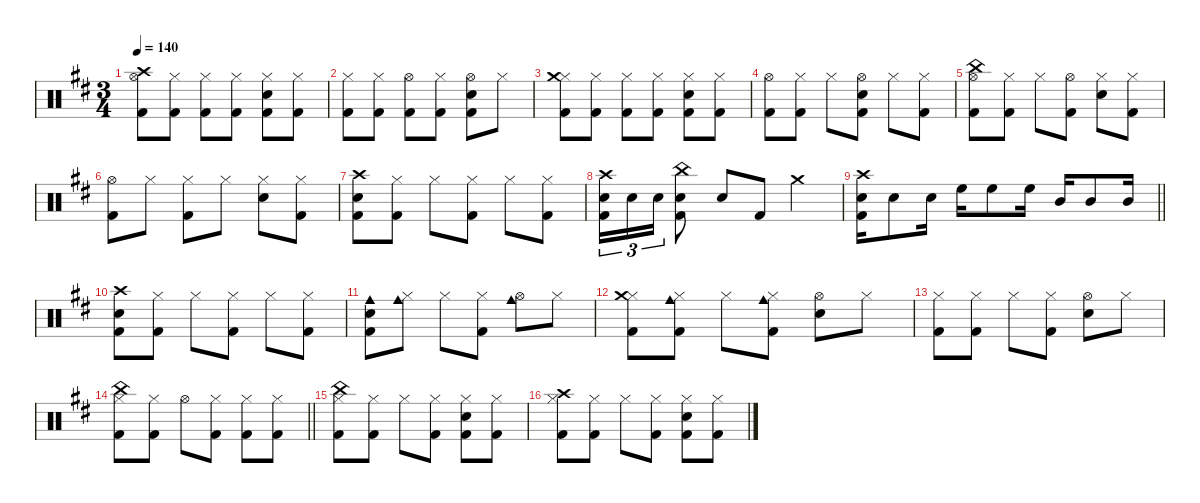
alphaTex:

\defaultSystemsLayout 4
\hideDynamics
\bracketExtendMode nobrackets
\singleTrackTrackNamePolicy hidden
\multiTrackTrackNamePolicy hidden
\otherSystemsTrackNameOrientation horizontal
\track ("Percussions" "drm.") {instrument percussion}
\staff {score}
\articulation defaults
\ts (3 4)
\tempo 140
\clef neutral
\ks d
("Hi-Hat (open)"{acc forcenatural} "Crash high (hit)"{acc forcenatural} "Kick (hit) 2"{acc forcenatural}).8{dy f beam Down} ("Hi-Hat (closed)"{acc forcenatural} "Kick (hit) 2"{acc forcenatural}).8{beam Down} ("Hi-Hat (closed)"{acc forcenatural} "Kick (hit) 2"{acc forcenatural}).8{beam Down} ("Hi-Hat (closed)"{acc forcenatural} "Kick (hit) 2"{acc forcenatural}).8{beam Down} ("Hi-Hat (closed)"{acc forcenatural} "Snare (hit) 2"{acc forcenatural} "Kick (hit) 2"{acc forcenatural}).8{beam Down} ("Hi-Hat (closed)"{acc forcenatural} "Kick (hit) 2"{acc forcenatural}).8{beam Down} |
("Hi-Hat (closed)"{acc forcenatural} "Kick (hit) 2"{acc forcenatural}).8{beam Down} ("Hi-Hat (closed)"{acc forcenatural} "Kick (hit) 2"{acc forcenatural}).8{beam Down} ("Hi-Hat (open)"{acc forcenatural} "Kick (hit) 2"{acc forcenatural}).8{beam Down} ("Hi-Hat (closed)"{acc forcenatural} "Kick (hit) 2"{acc forcenatural}).8{beam Down} ("Hi-Hat (open)"{acc forcenatural} "Snare (hit) 2"{acc forcenatural} "Kick (hit) 2"{acc forcenatural}).8{beam Down} "Hi-Hat (closed)"{acc forcenatural}.8{beam Down} |
("Hi-Hat (closed)"{acc forcenatural} "Crash medium (hit)"{acc forcenatural} "Kick (hit) 2"{acc forcenatural}).8{beam Down} ("Hi-Hat (closed)"{acc forcenatural} "Kick (hit) 2"{acc forcenatural}).8{beam Down} ("Hi-Hat (closed)"{acc forcenatural} "Kick (hit) 2"{acc forcenatural}).8{beam Down} ("Hi-Hat (closed)"{acc forcenatural} "Kick (hit) 2"{acc forcenatural}).8{beam Down} ("Hi-Hat (closed)"{acc forcenatural} "Snare (hit) 2"{acc forcenatural} "Kick (hit) 2"{acc forcenatural}).8{beam Down} ("Hi-Hat (closed)"{acc forcenatural} "Kick (hit) 2"{acc forcenatural}).8{beam Down} |
("Hi-Hat (open)"{acc forcenatural} "Kick (hit) 2"{acc forcenatural}).8{beam Down} ("Hi-Hat (closed)"{acc forcenatural} "Kick (hit) 2"{acc forcenatural}).8{beam Down} "Hi-Hat (closed)"{acc forcenatural}.8{beam Down} ("Hi-Hat (open)"{acc forcenatural} "Snare (hit) 2"{acc forcenatural} "Kick (hit) 2"{acc forcenatural}).8{beam Down} "Hi-Hat (closed)"{acc forcenatural}.8{beam Down} ("Hi-Hat (closed)"{acc forcenatural} "Kick (hit) 2"{acc forcenatural}).8{beam Down} |
("Hi-Hat (open)"{acc forcenatural} "China (hit)"{acc forcenatural} "Kick (hit) 2"{acc forcenatural}).8{beam Down} ("Hi-Hat (closed)"{acc forcenatural} "Kick (hit) 2"{acc forcenatural}).8{beam Down} "Hi-Hat (closed)"{acc forcenatural}.8{beam Down} ("Hi-Hat (open)"{acc forcenatural} "Kick (hit) 2"{acc forcenatural}).8{beam Down} ("Hi-Hat (closed)"{acc forcenatural} "Snare (hit) 2"{acc forcenatural}).8{beam Down} ("Hi-Hat (closed)"{acc forcenatural} "Kick (hit) 2"{acc forcenatural}).8{beam Down} |
("Hi-Hat (open)"{acc forcenatural} "Kick (hit) 2"{acc forcenatural}).8{beam Down} "Hi-Hat (closed)"{acc forcenatural}.8{beam Down} ("Hi-Hat (closed)"{acc forcenatural} "Kick (hit) 2"{acc forcenatural}).8{beam Down} "Hi-Hat (closed)"{acc forcenatural}.8{beam Down} ("Hi-Hat (closed)"{acc forcenatural} "Snare (hit) 2"{acc forcenatural}).8{beam Down} ("Hi-Hat (closed)"{acc forcenatural} "Kick (hit) 2"{acc forcenatural}).8{beam Down} |
("Crash high (hit)"{acc forcenatural} "Snare (hit) 2"{acc forcenatural} "Kick (hit) 2"{acc forcenatural}).8{beam Down} ("Hi-Hat (closed)"{acc forcenatural} "Kick (hit) 2"{acc forcenatural}).8{beam Down} "Hi-Hat (closed)"{acc forcenatural}.8{beam Down} ("Hi-Hat (closed)"{acc forcenatural} "Kick (hit) 2"{acc forcenatural}).8{beam Down} "Hi-Hat (closed)"{acc forcenatural}.8{beam Down} ("Hi-Hat (closed)"{acc forcenatural} "Kick (hit) 2"{acc forcenatural}).8{beam Down} |
("Crash high (hit)"{acc forcenatural} "Snare (hit) 2"{acc forcenatural} "Kick (hit) 2"{acc forcenatural}).16{tu (3 2) beam Down} "Snare (hit) 2"{acc forcenatural}.16{tu (3 2) beam Down} "Snare (hit) 2"{acc forcenatural}.16{tu (3 2) beam Down} ("China (hit)"{acc forcenatural} "Snare (hit) 2"{acc forcenatural} "Kick (hit) 2"{acc forcenatural}).8{beam Down} "Snare (hit) 2"{acc forcenatural}.8{beam Up} "Kick (hit) 2"{acc forcenatural}.8{beam Up} "Crash medium (hit)"{acc forcenatural}.4{beam Down} |
\barLineRight lightlight
("Crash high (hit)"{acc forcenatural} "Snare (hit) 2"{acc forcenatural} "Kick (hit) 2"{acc forcenatural}).16{beam Down} "Snare (hit) 2"{acc forcenatural}.8{beam Down} "Snare (hit) 2"{acc forcenatural}.16{beam Down} "High Floor Tom (hit)"{acc forcenatural}.16{beam Down} "High Floor Tom (hit)"{acc forcenatural}.8{beam Down} "High Floor Tom (hit)"{acc forcenatural}.16{beam Down} "Mid Tom (hit)"{acc forcenatural}.16{beam Up} "Mid Tom (hit)"{acc forcenatural}.8{beam Up} "Mid Tom (hit)"{acc forcenatural}.16{beam Up} |
("Crash high (hit)"{acc forcenatural} "Snare (hit) 2"{acc forcenatural} "Kick (hit) 2"{acc forcenatural}).8{beam Down} ("Hi-Hat (closed)"{acc forcenatural} "Kick (hit) 2"{acc forcenatural}).8{beam Down} "Hi-Hat (closed)"{acc forcenatural}.8{beam Down} ("Hi-Hat (closed)"{acc forcenatural} "Kick (hit) 2"{acc forcenatural}).8{beam Down} "Hi-Hat (closed)"{acc forcenatural}.8{beam Down} ("Hi-Hat (closed)"{acc forcenatural} "Kick (hit) 2"{acc forcenatural}).8{beam Down} |
("Cowbell medium (hit)"{acc forcenatural} "Snare (hit) 2"{acc forcenatural} "Kick (hit) 2"{acc forcenatural}).8{beam Down} ("Hi-Hat (closed)"{acc forcenatural} "Cowbell medium (hit)"{acc forcenatural}).8{beam Down} "Hi-Hat (closed)"{acc forcenatural}.8{beam Down} ("Hi-Hat (closed)"{acc forcenatural} "Kick (hit) 2"{acc forcenatural}).8{beam Down} ("Hi-Hat (open)"{acc forcenatural} "Cowbell medium (hit)"{acc forcenatural}).8{beam Down} "Hi-Hat (closed)"{acc forcenatural}.8{beam Down} |
("Hi-Hat (closed)"{acc forcenatural} "Crash medium (hit)"{acc forcenatural} "Kick (hit) 2"{acc forcenatural}).8{beam Down} ("Hi-Hat (closed)"{acc forcenatural} "Cowbell medium (hit)"{acc forcenatural} "Kick (hit) 2"{acc forcenatural}).8{beam Down} "Hi-Hat (closed)"{acc forcenatural}.8{beam Down} ("Hi-Hat (closed)"{acc forcenatural} "Cowbell medium (hit)"{acc forcenatural} "Kick (hit) 2"{acc forcenatural}).8{beam Down} ("Hi-Hat (open)"{acc forcenatural} "Snare (hit) 2"{acc forcenatural}).8{beam Down} "Hi-Hat (closed)"{acc forcenatural}.8{beam Down} |
("Hi-Hat (closed)"{acc forcenatural} "Kick (hit) 2"{acc forcenatural}).8{beam Down} ("Hi-Hat (closed)"{acc forcenatural} "Kick (hit) 2"{acc forcenatural}).8{beam Down} "Hi-Hat (closed)"{acc forcenatural}.8{beam Down} ("Hi-Hat (closed)"{acc forcenatural} "Kick (hit) 2"{acc forcenatural}).8{beam Down} ("Hi-Hat (open)"{acc forcenatural} "Snare (hit) 2"{acc forcenatural}).8{beam Down} "Hi-Hat (closed)"{acc forcenatural}.8{beam Down} |
\barLineRight lightlight
("Hi-Hat (closed)"{acc forcenatural} "China (hit)"{acc forcenatural} "Kick (hit) 2"{acc forcenatural}).8{beam Down} ("Hi-Hat (closed)"{acc forcenatural} "Kick (hit) 2"{acc forcenatural}).8{beam Down} "Hi-Hat (open)"{acc forcenatural}.8{beam Down} ("Hi-Hat (closed)"{acc forcenatural} "Kick (hit) 2"{acc forcenatural}).8{beam Down} ("Hi-Hat (closed)"{acc forcenatural} "Kick (hit) 2"{acc forcenatural}).8{beam Down} ("Hi-Hat (closed)"{acc forcenatural} "Kick (hit) 2"{acc forcenatural}).8{beam Down} |
("Hi-Hat (closed)"{acc forcenatural} "China (hit)"{acc forcenatural} "Kick (hit) 2"{acc forcenatural}).8{beam Down} ("Hi-Hat (closed)"{acc forcenatural} "Kick (hit) 2"{acc forcenatural}).8{beam Down} "Hi-Hat (closed)"{acc forcenatural}.8{beam Down} ("Hi-Hat (closed)"{acc forcenatural} "Kick (hit) 2"{acc forcenatural}).8{beam Down} ("Hi-Hat (closed)"{acc forcenatural} "Snare (hit) 2"{acc forcenatural} "Kick (hit) 2"{acc forcenatural}).8{beam Down} ("Hi-Hat (closed)"{acc forcenatural} "Kick (hit) 2"{acc forcenatural}).8{beam Down} |
("Hi-Hat (closed)"{acc forcenatural} "Crash high (hit)"{acc forcenatural} "Kick (hit) 2"{acc forcenatural}).8{beam Down} ("Hi-Hat (closed)"{acc forcenatural} "Kick (hit) 2"{acc forcenatural}).8{beam Down} "Hi-Hat (closed)"{acc forcenatural}.8{beam Down} ("Hi-Hat (closed)"{acc forcenatural} "Kick (hit) 2"{acc forcenatural}).8{beam Down} ("Hi-Hat (closed)"{acc forcenatural} "Snare (hit) 2"{acc forcenatural} "Kick (hit) 2"{acc forcenatural}).8{beam Down} ("Hi-Hat (closed)"{acc forcenatural} "Kick (hit) 2"{acc forcenatural}).8{beam Down}
